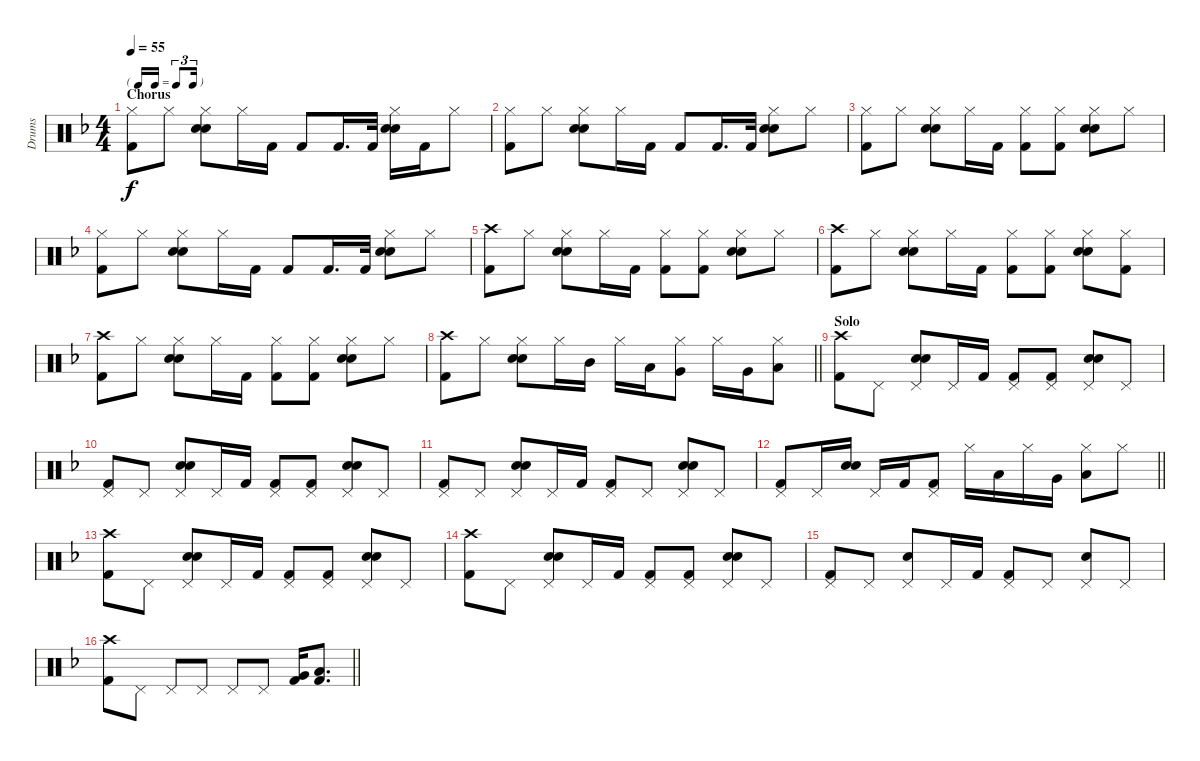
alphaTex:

\track ("Drums" "Drums") {instrument percussion}
\staff {score}
\articulation defaults
\ts (4 4)
\tf triplet16th
\section ("" "Chorus")
\tempo 55
\clef neutral
\ks dminor
("Hi-Hat (closed)" "Kick (hit) 2").8{dy f} "Hi-Hat (closed)".8 ("Hi-Hat (closed)" "Snare (hit) 2" "Electric Snare (hit)").8 "Hi-Hat (closed)".16 "Kick (hit) 2".16 "Kick (hit) 2".8 "Kick (hit) 2".16{d} "Kick (hit) 2".32 ("Hi-Hat (closed)" "Snare (hit) 2" "Electric Snare (hit)").16 "Kick (hit) 2".16 "Hi-Hat (closed)".8 |
("Hi-Hat (closed)" "Kick (hit) 2").8 "Hi-Hat (closed)".8 ("Hi-Hat (closed)" "Snare (hit) 2" "Electric Snare (hit)").8 "Hi-Hat (closed)".16 "Kick (hit) 2".16 "Kick (hit) 2".8 "Kick (hit) 2".16{d} "Kick (hit) 2".32 ("Hi-Hat (closed)" "Snare (hit) 2" "Electric Snare (hit)").8 "Hi-Hat (closed)".8 |
("Hi-Hat (closed)" "Kick (hit) 2").8 "Hi-Hat (closed)".8 ("Hi-Hat (closed)" "Snare (hit) 2" "Electric Snare (hit)").8 "Hi-Hat (closed)".16 "Kick (hit) 2".16 ("Hi-Hat (closed)" "Kick (hit) 2").8 ("Hi-Hat (closed)" "Kick (hit) 2").8 ("Hi-Hat (closed)" "Snare (hit) 2" "Electric Snare (hit)").8 "Hi-Hat (closed)".8 |
("Hi-Hat (closed)" "Kick (hit) 2").8 "Hi-Hat (closed)".8 ("Hi-Hat (closed)" "Snare (hit) 2" "Electric Snare (hit)").8 "Hi-Hat (closed)".16 "Kick (hit) 2".16 "Kick (hit) 2".8 "Kick (hit) 2".16{d} "Kick (hit) 2".32 ("Hi-Hat (closed)" "Snare (hit) 2" "Electric Snare (hit)").8 "Hi-Hat (closed)".8 |
("Crash high (hit)" "Kick (hit) 2").8 "Hi-Hat (closed)".8 ("Hi-Hat (closed)" "Snare (hit) 2" "Electric Snare (hit)").8 "Hi-Hat (closed)".16 "Kick (hit) 2".16 ("Hi-Hat (closed)" "Kick (hit) 2").8 ("Hi-Hat (closed)" "Kick (hit) 2").8 ("Hi-Hat (closed)" "Snare (hit) 2" "Electric Snare (hit)").8 "Hi-Hat (closed)".8 |
("Crash high (hit)" "Kick (hit) 2").8 "Hi-Hat (closed)".8 ("Hi-Hat (closed)" "Snare (hit) 2" "Electric Snare (hit)").8 "Hi-Hat (closed)".16 "Kick (hit) 2".16 ("Hi-Hat (closed)" "Kick (hit) 2").8 ("Hi-Hat (closed)" "Kick (hit) 2").8 ("Hi-Hat (closed)" "Snare (hit) 2" "Electric Snare (hit)").8 ("Hi-Hat (closed)" "Kick (hit) 2").8 |
("Crash high (hit)" "Kick (hit) 2").8 "Hi-Hat (closed)".8 ("Hi-Hat (closed)" "Snare (hit) 2" "Electric Snare (hit)").8 "Hi-Hat (closed)".16 "Kick (hit) 2".16 ("Hi-Hat (closed)" "Kick (hit) 2").8 ("Hi-Hat (closed)" "Kick (hit) 2").8 ("Hi-Hat (closed)" "Snare (hit) 2" "Electric Snare (hit)").8 "Hi-Hat (closed)".8 |
\barLineRight lightlight
("Crash high (hit)" "Kick (hit) 2").8 "Hi-Hat (closed)".8 ("Hi-Hat (closed)" "Snare (hit) 2" "Electric Snare (hit)").8 "Hi-Hat (closed)".16 "Mid Tom (hit)".16 "Hi-Hat (closed)".16 "Low Tom (hit)".16 ("Hi-Hat (closed)" "Very Low Tom (hit)").8 "Hi-Hat (closed)".16 "Very Low Tom (hit)".16 ("Hi-Hat (closed)" "Low Floor Tom (hit)").8 |
\section ("" "Solo")
("Crash high (hit)" "Kick (hit) 2").8 "Pedal Hi-Hat (hit)".8 ("Pedal Hi-Hat (hit)" "Snare (hit) 2" "Electric Snare (hit)").8 "Pedal Hi-Hat (hit)".16 "Kick (hit) 2".16 ("Pedal Hi-Hat (hit)" "Kick (hit) 2").8 ("Pedal Hi-Hat (hit)" "Kick (hit) 2").8 ("Pedal Hi-Hat (hit)" "Snare (hit) 2" "Electric Snare (hit)").8 "Pedal Hi-Hat (hit)".8 |
("Pedal Hi-Hat (hit)" "Kick (hit) 2").8 "Pedal Hi-Hat (hit)".8 ("Pedal Hi-Hat (hit)" "Snare (hit) 2" "Electric Snare (hit)").8 "Pedal Hi-Hat (hit)".16 "Kick (hit) 2".16 ("Pedal Hi-Hat (hit)" "Kick (hit) 2").8 ("Pedal Hi-Hat (hit)" "Kick (hit) 2").8 ("Pedal Hi-Hat (hit)" "Snare (hit) 2" "Electric Snare (hit)").8 "Pedal Hi-Hat (hit)".8 |
("Pedal Hi-Hat (hit)" "Kick (hit) 2").8 "Pedal Hi-Hat (hit)".8 ("Pedal Hi-Hat (hit)" "Snare (hit) 2" "Electric Snare (hit)").8 "Pedal Hi-Hat (hit)".16 "Kick (hit) 2".16 ("Pedal Hi-Hat (hit)" "Kick (hit) 2").8 "Pedal Hi-Hat (hit)".8 ("Pedal Hi-Hat (hit)" "Snare (hit) 2" "Electric Snare (hit)").8 "Pedal Hi-Hat (hit)".8 |
\barLineRight lightlight
("Pedal Hi-Hat (hit)" "Kick (hit) 2").8 "Pedal Hi-Hat (hit)".16 ("Snare (hit) 2" "Electric Snare (hit)").16 "Pedal Hi-Hat (hit)".16 "Kick (hit) 2".16 ("Pedal Hi-Hat (hit)" "Kick (hit) 2").8 "Hi-Hat (closed)".16 "Low Tom (hit)".16 "Hi-Hat (closed)".16 "Very Low Tom (hit)".16 ("Hi-Hat (closed)" "Low Floor Tom (hit)").8 "Hi-Hat (closed)".8 |
("Crash high (hit)" "Kick (hit) 2").8 "Pedal Hi-Hat (hit)".8 ("Pedal Hi-Hat (hit)" "Snare (hit) 2" "Electric Snare (hit)").8 "Pedal Hi-Hat (hit)".16 "Kick (hit) 2".16 ("Pedal Hi-Hat (hit)" "Kick (hit) 2").8 ("Pedal Hi-Hat (hit)" "Kick (hit) 2").8 ("Pedal Hi-Hat (hit)" "Snare (hit) 2" "Electric Snare (hit)").8 "Pedal Hi-Hat (hit)".8 |
("Crash high (hit)" "Kick (hit) 2").8 "Pedal Hi-Hat (hit)".8 ("Pedal Hi-Hat (hit)" "Snare (hit) 2" "Electric Snare (hit)").8 "Pedal Hi-Hat (hit)".16 "Kick (hit) 2".16 ("Pedal Hi-Hat (hit)" "Kick (hit) 2").8 ("Pedal Hi-Hat (hit)" "Kick (hit) 2").8 ("Pedal Hi-Hat (hit)" "Snare (hit) 2" "Electric Snare (hit)").8 "Pedal Hi-Hat (hit)".8 |
("Pedal Hi-Hat (hit)" "Kick (hit) 2").8 "Pedal Hi-Hat (hit)".8 ("Pedal Hi-Hat (hit)" "Electric Snare (hit)").8 "Pedal Hi-Hat (hit)".16 "Kick (hit) 2".16 ("Pedal Hi-Hat (hit)" "Kick (hit) 2").8 "Pedal Hi-Hat (hit)".8 ("Pedal Hi-Hat (hit)" "Electric Snare (hit)").8 "Pedal Hi-Hat (hit)".8 |
\barLineRight lightlight
("Crash high (hit)" "Kick (hit) 2").8 "Pedal Hi-Hat (hit)".8 "Pedal Hi-Hat (hit)".8 "Pedal Hi-Hat (hit)".8 "Pedal Hi-Hat (hit)".8 "Pedal Hi-Hat (hit)".8 ("Very Low Tom (hit)" "Kick (hit) 2").16 ("Low Floor Tom (hit)" "Kick (hit) 2").8{d}
